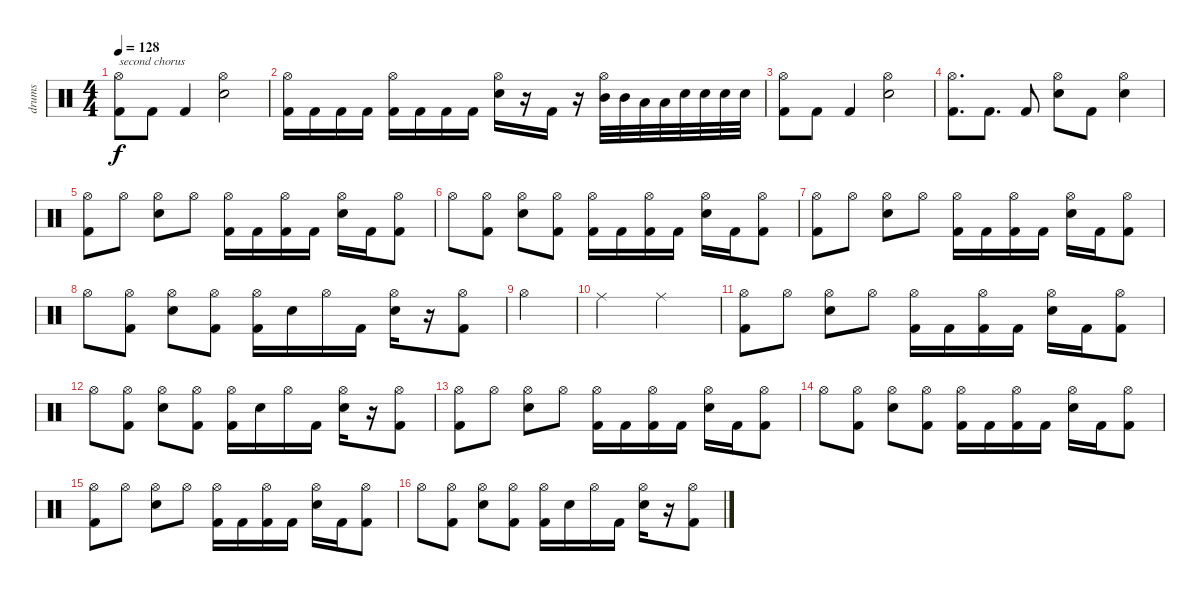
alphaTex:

\track ("drums" "drums") {instrument percussion}
\staff {score}
\articulation defaults
\ts (4 4)
\tempo 128
\clef neutral
\ks c
("Hi-Hat (open)" "Kick (hit) 2").8{txt "second chorus" dy f} "Kick (hit) 2".8 "Kick (hit) 2".4 ("Hi-Hat (open)" "Snare (hit) 2").2 |
("Hi-Hat (open)" "Kick (hit) 2").16 "Kick (hit) 2".16 "Kick (hit) 2".16 "Kick (hit) 2".16 ("Hi-Hat (open)" "Kick (hit) 2").16 "Kick (hit) 2".16 "Kick (hit) 2".16 "Kick (hit) 2".16 ("Hi-Hat (open)" "Snare (hit) 2").16 r.16 "Kick (hit) 2".16 r.16 ("Hi-Hat (open)" "Mid Tom (hit)").32 "Mid Tom (hit)".32 "Low Tom (hit)".32 "Low Tom (hit)".32 "Snare (hit) 2".32 "Snare (hit) 2".32 "Snare (hit) 2".32 "Snare (hit) 2".32 |
("Hi-Hat (open)" "Kick (hit) 2").8 "Kick (hit) 2".8 "Kick (hit) 2".4 ("Hi-Hat (open)" "Snare (hit) 2").2 |
("Hi-Hat (open)" "Kick (hit) 2").8{d} "Kick (hit) 2".8{d} "Kick (hit) 2".8 ("Hi-Hat (open)" "Snare (hit) 2").8 "Kick (hit) 2".8 ("Hi-Hat (open)" "Snare (hit) 2").4 |
("Hi-Hat (open)" "Kick (hit) 2").8 "Hi-Hat (open)".8 ("Hi-Hat (open)" "Snare (hit) 2").8 "Hi-Hat (open)".8 ("Hi-Hat (open)" "Kick (hit) 2").16 "Kick (hit) 2".16 ("Hi-Hat (open)" "Kick (hit) 2").16 "Kick (hit) 2".16 ("Hi-Hat (open)" "Snare (hit) 2").16 "Kick (hit) 2".16 ("Hi-Hat (open)" "Kick (hit) 2").8 |
"Hi-Hat (open)".8 ("Hi-Hat (open)" "Kick (hit) 2").8 ("Hi-Hat (open)" "Snare (hit) 2").8 ("Hi-Hat (open)" "Kick (hit) 2").8 ("Hi-Hat (open)" "Kick (hit) 2").16 "Kick (hit) 2".16 ("Hi-Hat (open)" "Kick (hit) 2").16 "Kick (hit) 2".16 ("Hi-Hat (open)" "Snare (hit) 2").16 "Kick (hit) 2".16 ("Hi-Hat (open)" "Kick (hit) 2").8 |
("Hi-Hat (open)" "Kick (hit) 2").8 "Hi-Hat (open)".8 ("Hi-Hat (open)" "Snare (hit) 2").8 "Hi-Hat (open)".8 ("Hi-Hat (open)" "Kick (hit) 2").16 "Kick (hit) 2".16 ("Hi-Hat (open)" "Kick (hit) 2").16 "Kick (hit) 2".16 ("Hi-Hat (open)" "Snare (hit) 2").16 "Kick (hit) 2".16 ("Hi-Hat (open)" "Kick (hit) 2").8 |
"Hi-Hat (open)".8 ("Hi-Hat (open)" "Kick (hit) 2").8 ("Hi-Hat (open)" "Snare (hit) 2").8 ("Hi-Hat (open)" "Kick (hit) 2").8 ("Hi-Hat (open)" "Kick (hit) 2").16 "Snare (hit) 2".16 "Hi-Hat (open)".16 "Kick (hit) 2".16 ("Hi-Hat (open)" "Snare (hit) 2").16 r.16 ("Hi-Hat (open)" "Kick (hit) 2").8 |
"Hi-Hat (open)".4 |
"Ride (middle)".2 "Ride (middle)".2 |
("Hi-Hat (open)" "Kick (hit) 2").8 "Hi-Hat (open)".8 ("Hi-Hat (open)" "Snare (hit) 2").8 "Hi-Hat (open)".8 ("Hi-Hat (open)" "Kick (hit) 2").16 "Kick (hit) 2".16 ("Hi-Hat (open)" "Kick (hit) 2").16 "Kick (hit) 2".16 ("Hi-Hat (open)" "Snare (hit) 2").16 "Kick (hit) 2".16 ("Hi-Hat (open)" "Kick (hit) 2").8 |
"Hi-Hat (open)".8 ("Hi-Hat (open)" "Kick (hit) 2").8 ("Hi-Hat (open)" "Snare (hit) 2").8 ("Hi-Hat (open)" "Kick (hit) 2").8 ("Hi-Hat (open)" "Kick (hit) 2").16 "Snare (hit) 2".16 "Hi-Hat (open)".16 "Kick (hit) 2".16 ("Hi-Hat (open)" "Snare (hit) 2").16 r.16 ("Hi-Hat (open)" "Kick (hit) 2").8 |
("Hi-Hat (open)" "Kick (hit) 2").8 "Hi-Hat (open)".8 ("Hi-Hat (open)" "Snare (hit) 2").8 "Hi-Hat (open)".8 ("Hi-Hat (open)" "Kick (hit) 2").16 "Kick (hit) 2".16 ("Hi-Hat (open)" "Kick (hit) 2").16 "Kick (hit) 2".16 ("Hi-Hat (open)" "Snare (hit) 2").16 "Kick (hit) 2".16 ("Hi-Hat (open)" "Kick (hit) 2").8 |
"Hi-Hat (open)".8 ("Hi-Hat (open)" "Kick (hit) 2").8 ("Hi-Hat (open)" "Snare (hit) 2").8 ("Hi-Hat (open)" "Kick (hit) 2").8 ("Hi-Hat (open)" "Kick (hit) 2").16 "Kick (hit) 2".16 ("Hi-Hat (open)" "Kick (hit) 2").16 "Kick (hit) 2".16 ("Hi-Hat (open)" "Snare (hit) 2").16 "Kick (hit) 2".16 ("Hi-Hat (open)" "Kick (hit) 2").8 |
("Hi-Hat (open)" "Kick (hit) 2").8 "Hi-Hat (open)".8 ("Hi-Hat (open)" "Snare (hit) 2").8 "Hi-Hat (open)".8 ("Hi-Hat (open)" "Kick (hit) 2").16 "Kick (hit) 2".16 ("Hi-Hat (open)" "Kick (hit) 2").16 "Kick (hit) 2".16 ("Hi-Hat (open)" "Snare (hit) 2").16 "Kick (hit) 2".16 ("Hi-Hat (open)" "Kick (hit) 2").8 |
"Hi-Hat (open)".8 ("Hi-Hat (open)" "Kick (hit) 2").8 ("Hi-Hat (open)" "Snare (hit) 2").8 ("Hi-Hat (open)" "Kick (hit) 2").8 ("Hi-Hat (open)" "Kick (hit) 2").16 "Snare (hit) 2".16 "Hi-Hat (open)".16 "Kick (hit) 2".16 ("Hi-Hat (open)" "Snare (hit) 2").16 r.16 ("Hi-Hat (open)" "Kick (hit) 2").8
